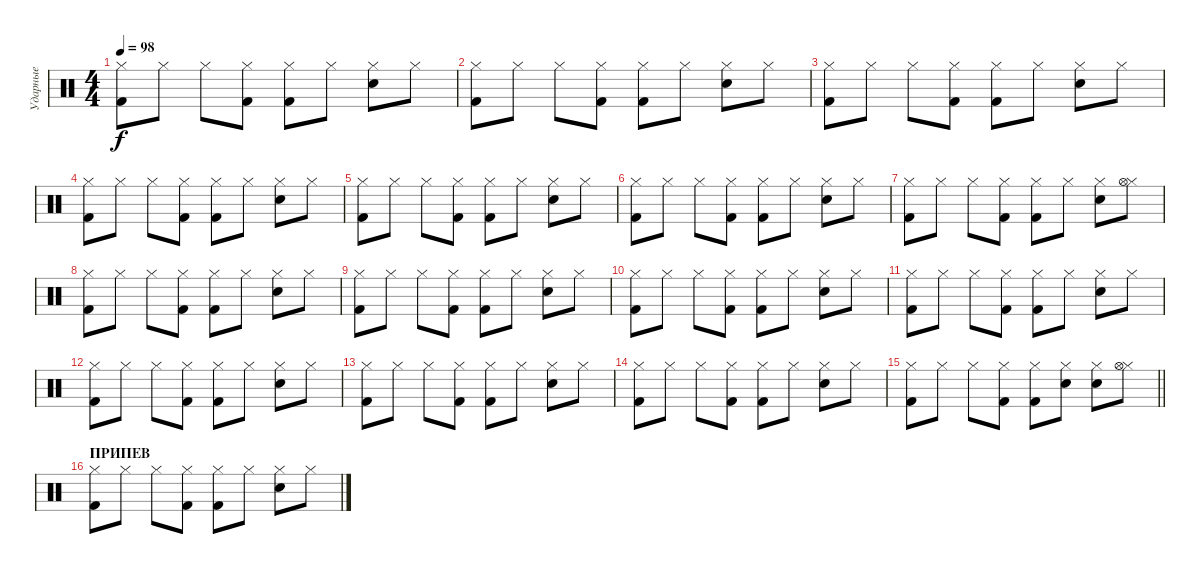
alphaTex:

\track ("Ударные" "Ударные") {instrument percussion}
\staff {score}
\articulation defaults
\ts (4 4)
\tempo 98
\clef neutral
\ks c
("Hi-Hat (closed)" "Kick (hit) 2").8{dy f} "Hi-Hat (closed)".8 "Hi-Hat (closed)".8 ("Hi-Hat (closed)" "Kick (hit) 2").8 ("Hi-Hat (closed)" "Kick (hit) 2").8 "Hi-Hat (closed)".8 ("Hi-Hat (closed)" "Snare (hit) 2").8 "Hi-Hat (closed)".8 |
("Hi-Hat (closed)" "Kick (hit) 2").8 "Hi-Hat (closed)".8 "Hi-Hat (closed)".8 ("Hi-Hat (closed)" "Kick (hit) 2").8 ("Hi-Hat (closed)" "Kick (hit) 2").8 "Hi-Hat (closed)".8 ("Hi-Hat (closed)" "Snare (hit) 2").8 "Hi-Hat (closed)".8 |
("Hi-Hat (closed)" "Kick (hit) 2").8 "Hi-Hat (closed)".8 "Hi-Hat (closed)".8 ("Hi-Hat (closed)" "Kick (hit) 2").8 ("Hi-Hat (closed)" "Kick (hit) 2").8 "Hi-Hat (closed)".8 ("Hi-Hat (closed)" "Snare (hit) 2").8 "Hi-Hat (closed)".8 |
("Hi-Hat (closed)" "Kick (hit) 2").8 "Hi-Hat (closed)".8 "Hi-Hat (closed)".8 ("Hi-Hat (closed)" "Kick (hit) 2").8 ("Hi-Hat (closed)" "Kick (hit) 2").8 "Hi-Hat (closed)".8 ("Hi-Hat (closed)" "Snare (hit) 2").8 "Hi-Hat (closed)".8 |
("Hi-Hat (closed)" "Kick (hit) 2").8 "Hi-Hat (closed)".8 "Hi-Hat (closed)".8 ("Hi-Hat (closed)" "Kick (hit) 2").8 ("Hi-Hat (closed)" "Kick (hit) 2").8 "Hi-Hat (closed)".8 ("Hi-Hat (closed)" "Snare (hit) 2").8 "Hi-Hat (closed)".8 |
("Hi-Hat (closed)" "Kick (hit) 2").8 "Hi-Hat (closed)".8 "Hi-Hat (closed)".8 ("Hi-Hat (closed)" "Kick (hit) 2").8 ("Hi-Hat (closed)" "Kick (hit) 2").8 "Hi-Hat (closed)".8 ("Hi-Hat (closed)" "Snare (hit) 2").8 "Hi-Hat (closed)".8 |
("Hi-Hat (closed)" "Kick (hit) 2").8 "Hi-Hat (closed)".8 "Hi-Hat (closed)".8 ("Hi-Hat (closed)" "Kick (hit) 2").8 ("Hi-Hat (closed)" "Kick (hit) 2").8 "Hi-Hat (closed)".8 ("Hi-Hat (closed)" "Snare (hit) 2").8 ("Hi-Hat (closed)" "Hi-Hat (open)").8 |
("Hi-Hat (closed)" "Kick (hit) 2").8 "Hi-Hat (closed)".8 "Hi-Hat (closed)".8 ("Hi-Hat (closed)" "Kick (hit) 2").8 ("Hi-Hat (closed)" "Kick (hit) 2").8 "Hi-Hat (closed)".8 ("Hi-Hat (closed)" "Snare (hit) 2").8 "Hi-Hat (closed)".8 |
("Hi-Hat (closed)" "Kick (hit) 2").8 "Hi-Hat (closed)".8 "Hi-Hat (closed)".8 ("Hi-Hat (closed)" "Kick (hit) 2").8 ("Hi-Hat (closed)" "Kick (hit) 2").8 "Hi-Hat (closed)".8 ("Hi-Hat (closed)" "Snare (hit) 2").8 "Hi-Hat (closed)".8 |
("Hi-Hat (closed)" "Kick (hit) 2").8 "Hi-Hat (closed)".8 "Hi-Hat (closed)".8 ("Hi-Hat (closed)" "Kick (hit) 2").8 ("Hi-Hat (closed)" "Kick (hit) 2").8 "Hi-Hat (closed)".8 ("Hi-Hat (closed)" "Snare (hit) 2").8 "Hi-Hat (closed)".8 |
("Hi-Hat (closed)" "Kick (hit) 2").8 "Hi-Hat (closed)".8 "Hi-Hat (closed)".8 ("Hi-Hat (closed)" "Kick (hit) 2").8 ("Hi-Hat (closed)" "Kick (hit) 2").8 "Hi-Hat (closed)".8 ("Hi-Hat (closed)" "Snare (hit) 2").8 "Hi-Hat (closed)".8 |
("Hi-Hat (closed)" "Kick (hit) 2").8 "Hi-Hat (closed)".8 "Hi-Hat (closed)".8 ("Hi-Hat (closed)" "Kick (hit) 2").8 ("Hi-Hat (closed)" "Kick (hit) 2").8 "Hi-Hat (closed)".8 ("Hi-Hat (closed)" "Snare (hit) 2").8 "Hi-Hat (closed)".8 |
("Hi-Hat (closed)" "Kick (hit) 2").8 "Hi-Hat (closed)".8 "Hi-Hat (closed)".8 ("Hi-Hat (closed)" "Kick (hit) 2").8 ("Hi-Hat (closed)" "Kick (hit) 2").8 "Hi-Hat (closed)".8 ("Hi-Hat (closed)" "Snare (hit) 2").8 "Hi-Hat (closed)".8 |
("Hi-Hat (closed)" "Kick (hit) 2").8 "Hi-Hat (closed)".8 "Hi-Hat (closed)".8 ("Hi-Hat (closed)" "Kick (hit) 2").8 ("Hi-Hat (closed)" "Kick (hit) 2").8 "Hi-Hat (closed)".8 ("Hi-Hat (closed)" "Snare (hit) 2").8 "Hi-Hat (closed)".8 |
\barLineRight lightlight
("Hi-Hat (closed)" "Kick (hit) 2").8 "Hi-Hat (closed)".8 "Hi-Hat (closed)".8 ("Hi-Hat (closed)" "Kick (hit) 2").8 ("Hi-Hat (closed)" "Kick (hit) 2").8 ("Hi-Hat (closed)" "Snare (hit) 2").8 ("Hi-Hat (closed)" "Snare (hit) 2").8 ("Hi-Hat (closed)" "Hi-Hat (open)").8 |
\section ("" "ПРИПЕВ")
("Hi-Hat (closed)" "Kick (hit) 2").8 "Hi-Hat (closed)".8 "Hi-Hat (closed)".8 ("Hi-Hat (closed)" "Kick (hit) 2").8 ("Hi-Hat (closed)" "Kick (hit) 2").8 "Hi-Hat (closed)".8 ("Hi-Hat (closed)" "Snare (hit) 2").8 "Hi-Hat (closed)".8
